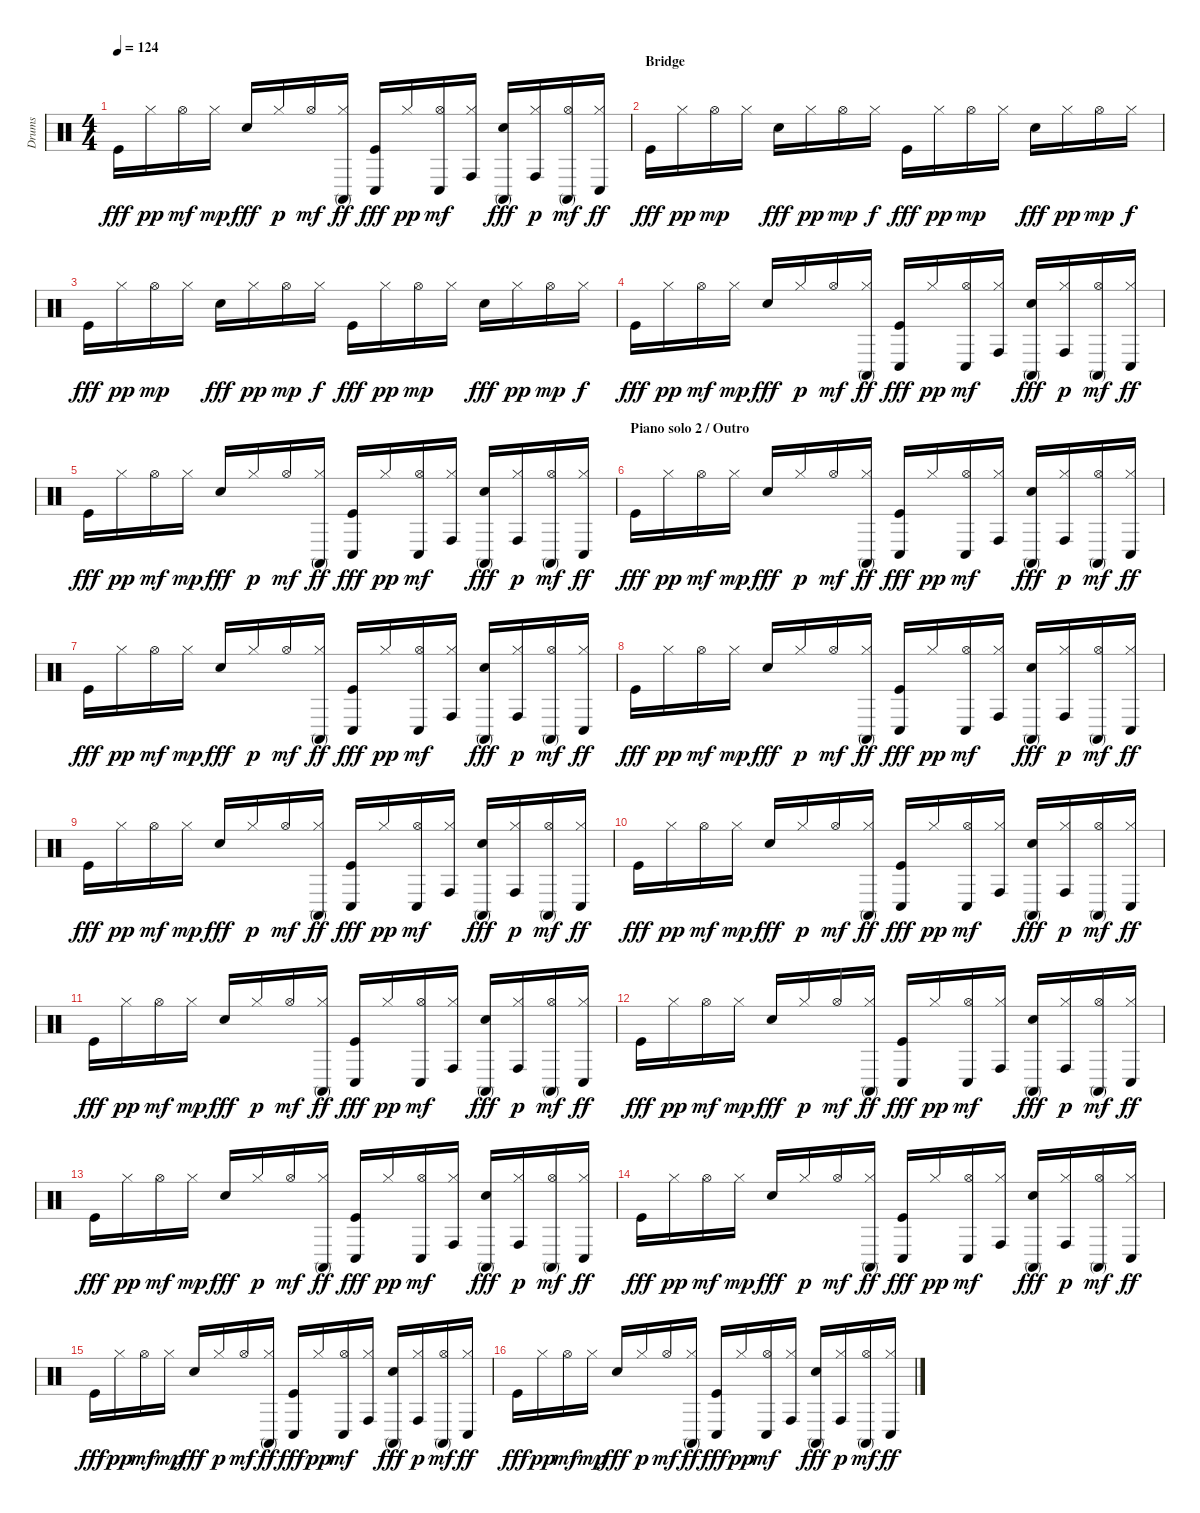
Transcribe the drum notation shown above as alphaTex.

\track ("Drums" "Drums") {instrument percussion}
\staff {score}
\articulation defaults
\ts (4 4)
\tempo 124
\clef neutral
\ks c "Kick (hit)".16{dy fff} "Hi-Hat (closed)".16{dy pp} "Hi-Hat (open)".16{dy mf} "Hi-Hat (closed)".16{dy mp} "Electric Snare (hit)".16{dy fff} "Hi-Hat (closed)".16{dy p} "Hi-Hat (open)".16{dy mf}
("Conga high (mute)" "Hi-Hat (closed)").16{dy ff} ("Kick (hit)" "Conga low (hit)").16{dy fff} "Hi-Hat (closed)".16{dy pp} ("Conga low (hit)" "Hi-Hat (open)").16{dy mf} ("Conga high (hit)" "Hi-Hat (closed)").16 ("Electric Snare (hit)" "Conga high (mute)").16{dy fff} ("Conga high (hit)" "Hi-Hat (closed)").16{dy p} ("Conga high (mute)" "Hi-Hat (open)").16{dy mf} ("Conga low (hit)" "Hi-Hat (closed)").16{dy ff} |
\section ("" "Bridge")
"Kick (hit)".16{dy fff} "Hi-Hat (closed)".16{dy pp} "Hi-Hat (open)".16{dy mp} "Hi-Hat (closed)".16 "Electric Snare (hit)".16{dy fff} "Hi-Hat (closed)".16{dy pp} "Hi-Hat (open)".16{dy mp} "Hi-Hat (closed)".16{dy f} "Kick (hit)".16{dy fff} "Hi-Hat (closed)".16{dy pp} "Hi-Hat (open)".16{dy mp} "Hi-Hat (closed)".16 "Electric Snare (hit)".16{dy fff} "Hi-Hat (closed)".16{dy pp} "Hi-Hat (open)".16{dy mp} "Hi-Hat (closed)".16{dy f} |
"Kick (hit)".16{dy fff} "Hi-Hat (closed)".16{dy pp} "Hi-Hat (open)".16{dy mp} "Hi-Hat (closed)".16 "Electric Snare (hit)".16{dy fff} "Hi-Hat (closed)".16{dy pp} "Hi-Hat (open)".16{dy mp} "Hi-Hat (closed)".16{dy f} "Kick (hit)".16{dy fff} "Hi-Hat (closed)".16{dy pp} "Hi-Hat (open)".16{dy mp} "Hi-Hat (closed)".16 "Electric Snare (hit)".16{dy fff} "Hi-Hat (closed)".16{dy pp} "Hi-Hat (open)".16{dy mp} "Hi-Hat (closed)".16{dy f} |
"Kick (hit)".16{dy fff} "Hi-Hat (closed)".16{dy pp} "Hi-Hat (open)".16{dy mf} "Hi-Hat (closed)".16{dy mp} "Electric Snare (hit)".16{dy fff} "Hi-Hat (closed)".16{dy p} "Hi-Hat (open)".16{dy mf} ("Conga high (mute)" "Hi-Hat (closed)").16{dy ff} ("Kick (hit)" "Conga low (hit)").16{dy fff} "Hi-Hat (closed)".16{dy pp} ("Conga low (hit)" "Hi-Hat (open)").16{dy mf} ("Conga high (hit)" "Hi-Hat (closed)").16 ("Electric Snare (hit)" "Conga high (mute)").16{dy fff} ("Conga high (hit)" "Hi-Hat (closed)").16{dy p} ("Conga high (mute)" "Hi-Hat (open)").16{dy mf} ("Conga low (hit)" "Hi-Hat (closed)").16{dy ff} |
"Kick (hit)".16{dy fff} "Hi-Hat (closed)".16{dy pp} "Hi-Hat (open)".16{dy mf} "Hi-Hat (closed)".16{dy mp} "Electric Snare (hit)".16{dy fff} "Hi-Hat (closed)".16{dy p} "Hi-Hat (open)".16{dy mf} ("Conga high (mute)" "Hi-Hat (closed)").16{dy ff} ("Kick (hit)" "Conga low (hit)").16{dy fff} "Hi-Hat (closed)".16{dy pp} ("Conga low (hit)" "Hi-Hat (open)").16{dy mf} ("Conga high (hit)" "Hi-Hat (closed)").16 ("Electric Snare (hit)" "Conga high (mute)").16{dy fff} ("Conga high (hit)" "Hi-Hat (closed)").16{dy p} ("Conga high (mute)" "Hi-Hat (open)").16{dy mf} ("Conga low (hit)" "Hi-Hat (closed)").16{dy ff} |
\section ("" "Piano solo 2 / Outro")
"Kick (hit)".16{dy fff} "Hi-Hat (closed)".16{dy pp} "Hi-Hat (open)".16{dy mf} "Hi-Hat (closed)".16{dy mp} "Electric Snare (hit)".16{dy fff} "Hi-Hat (closed)".16{dy p} "Hi-Hat (open)".16{dy mf} ("Conga high (mute)" "Hi-Hat (closed)").16{dy ff} ("Kick (hit)" "Conga low (hit)").16{dy fff} "Hi-Hat (closed)".16{dy pp} ("Conga low (hit)" "Hi-Hat (open)").16{dy mf} ("Conga high (hit)" "Hi-Hat (closed)").16 ("Electric Snare (hit)" "Conga high (mute)").16{dy fff} ("Conga high (hit)" "Hi-Hat (closed)").16{dy p} ("Conga high (mute)" "Hi-Hat (open)").16{dy mf} ("Conga low (hit)" "Hi-Hat (closed)").16{dy ff} |
"Kick (hit)".16{dy fff} "Hi-Hat (closed)".16{dy pp} "Hi-Hat (open)".16{dy mf} "Hi-Hat (closed)".16{dy mp} "Electric Snare (hit)".16{dy fff} "Hi-Hat (closed)".16{dy p} "Hi-Hat (open)".16{dy mf} ("Conga high (mute)" "Hi-Hat (closed)").16{dy ff} ("Kick (hit)" "Conga low (hit)").16{dy fff} "Hi-Hat (closed)".16{dy pp} ("Conga low (hit)" "Hi-Hat (open)").16{dy mf} ("Conga high (hit)" "Hi-Hat (closed)").16 ("Electric Snare (hit)" "Conga high (mute)").16{dy fff} ("Conga high (hit)" "Hi-Hat (closed)").16{dy p} ("Conga high (mute)" "Hi-Hat (open)").16{dy mf} ("Conga low (hit)" "Hi-Hat (closed)").16{dy ff} |
"Kick (hit)".16{dy fff} "Hi-Hat (closed)".16{dy pp} "Hi-Hat (open)".16{dy mf} "Hi-Hat (closed)".16{dy mp} "Electric Snare (hit)".16{dy fff} "Hi-Hat (closed)".16{dy p} "Hi-Hat (open)".16{dy mf} ("Conga high (mute)" "Hi-Hat (closed)").16{dy ff} ("Kick (hit)" "Conga low (hit)").16{dy fff} "Hi-Hat (closed)".16{dy pp} ("Conga low (hit)" "Hi-Hat (open)").16{dy mf} ("Conga high (hit)" "Hi-Hat (closed)").16 ("Electric Snare (hit)" "Conga high (mute)").16{dy fff} ("Conga high (hit)" "Hi-Hat (closed)").16{dy p} ("Conga high (mute)" "Hi-Hat (open)").16{dy mf} ("Conga low (hit)" "Hi-Hat (closed)").16{dy ff} |
"Kick (hit)".16{dy fff} "Hi-Hat (closed)".16{dy pp} "Hi-Hat (open)".16{dy mf} "Hi-Hat (closed)".16{dy mp} "Electric Snare (hit)".16{dy fff} "Hi-Hat (closed)".16{dy p} "Hi-Hat (open)".16{dy mf} ("Conga high (mute)" "Hi-Hat (closed)").16{dy ff} ("Kick (hit)" "Conga low (hit)").16{dy fff} "Hi-Hat (closed)".16{dy pp} ("Conga low (hit)" "Hi-Hat (open)").16{dy mf} ("Conga high (hit)" "Hi-Hat (closed)").16 ("Electric Snare (hit)" "Conga high (mute)").16{dy fff} ("Conga high (hit)" "Hi-Hat (closed)").16{dy p} ("Conga high (mute)" "Hi-Hat (open)").16{dy mf} ("Conga low (hit)" "Hi-Hat (closed)").16{dy ff} |
"Kick (hit)".16{dy fff} "Hi-Hat (closed)".16{dy pp} "Hi-Hat (open)".16{dy mf} "Hi-Hat (closed)".16{dy mp} "Electric Snare (hit)".16{dy fff} "Hi-Hat (closed)".16{dy p} "Hi-Hat (open)".16{dy mf} ("Conga high (mute)" "Hi-Hat (closed)").16{dy ff} ("Kick (hit)" "Conga low (hit)").16{dy fff} "Hi-Hat (closed)".16{dy pp} ("Conga low (hit)" "Hi-Hat (open)").16{dy mf} ("Conga high (hit)" "Hi-Hat (closed)").16 ("Electric Snare (hit)" "Conga high (mute)").16{dy fff} ("Conga high (hit)" "Hi-Hat (closed)").16{dy p} ("Conga high (mute)" "Hi-Hat (open)").16{dy mf} ("Conga low (hit)" "Hi-Hat (closed)").16{dy ff} |
"Kick (hit)".16{dy fff} "Hi-Hat (closed)".16{dy pp} "Hi-Hat (open)".16{dy mf} "Hi-Hat (closed)".16{dy mp} "Electric Snare (hit)".16{dy fff} "Hi-Hat (closed)".16{dy p} "Hi-Hat (open)".16{dy mf} ("Conga high (mute)" "Hi-Hat (closed)").16{dy ff} ("Kick (hit)" "Conga low (hit)").16{dy fff} "Hi-Hat (closed)".16{dy pp} ("Conga low (hit)" "Hi-Hat (open)").16{dy mf} ("Conga high (hit)" "Hi-Hat (closed)").16 ("Electric Snare (hit)" "Conga high (mute)").16{dy fff} ("Conga high (hit)" "Hi-Hat (closed)").16{dy p} ("Conga high (mute)" "Hi-Hat (open)").16{dy mf} ("Conga low (hit)" "Hi-Hat (closed)").16{dy ff} |
"Kick (hit)".16{dy fff} "Hi-Hat (closed)".16{dy pp} "Hi-Hat (open)".16{dy mf} "Hi-Hat (closed)".16{dy mp} "Electric Snare (hit)".16{dy fff} "Hi-Hat (closed)".16{dy p} "Hi-Hat (open)".16{dy mf} ("Conga high (mute)" "Hi-Hat (closed)").16{dy ff} ("Kick (hit)" "Conga low (hit)").16{dy fff} "Hi-Hat (closed)".16{dy pp} ("Conga low (hit)" "Hi-Hat (open)").16{dy mf} ("Conga high (hit)" "Hi-Hat (closed)").16 ("Electric Snare (hit)" "Conga high (mute)").16{dy fff} ("Conga high (hit)" "Hi-Hat (closed)").16{dy p} ("Conga high (mute)" "Hi-Hat (open)").16{dy mf} ("Conga low (hit)" "Hi-Hat (closed)").16{dy ff} |
"Kick (hit)".16{dy fff} "Hi-Hat (closed)".16{dy pp} "Hi-Hat (open)".16{dy mf} "Hi-Hat (closed)".16{dy mp} "Electric Snare (hit)".16{dy fff} "Hi-Hat (closed)".16{dy p} "Hi-Hat (open)".16{dy mf} ("Conga high (mute)" "Hi-Hat (closed)").16{dy ff} ("Kick (hit)" "Conga low (hit)").16{dy fff} "Hi-Hat (closed)".16{dy pp} ("Conga low (hit)" "Hi-Hat (open)").16{dy mf} ("Conga high (hit)" "Hi-Hat (closed)").16 ("Electric Snare (hit)" "Conga high (mute)").16{dy fff} ("Conga high (hit)" "Hi-Hat (closed)").16{dy p} ("Conga high (mute)" "Hi-Hat (open)").16{dy mf} ("Conga low (hit)" "Hi-Hat (closed)").16{dy ff} |
"Kick (hit)".16{dy fff} "Hi-Hat (closed)".16{dy pp} "Hi-Hat (open)".16{dy mf} "Hi-Hat (closed)".16{dy mp} "Electric Snare (hit)".16{dy fff} "Hi-Hat (closed)".16{dy p} "Hi-Hat (open)".16{dy mf} ("Conga high (mute)" "Hi-Hat (closed)").16{dy ff} ("Kick (hit)" "Conga low (hit)").16{dy fff} "Hi-Hat (closed)".16{dy pp} ("Conga low (hit)" "Hi-Hat (open)").16{dy mf} ("Conga high (hit)" "Hi-Hat (closed)").16 ("Electric Snare (hit)" "Conga high (mute)").16{dy fff} ("Conga high (hit)" "Hi-Hat (closed)").16{dy p} ("Conga high (mute)" "Hi-Hat (open)").16{dy mf} ("Conga low (hit)" "Hi-Hat (closed)").16{dy ff} |
"Kick (hit)".16{dy fff} "Hi-Hat (closed)".16{dy pp} "Hi-Hat (open)".16{dy mf} "Hi-Hat (closed)".16{dy mp} "Electric Snare (hit)".16{dy fff} "Hi-Hat (closed)".16{dy p} "Hi-Hat (open)".16{dy mf} ("Conga high (mute)" "Hi-Hat (closed)").16{dy ff} ("Kick (hit)" "Conga low (hit)").16{dy fff} "Hi-Hat (closed)".16{dy pp} ("Conga low (hit)" "Hi-Hat (open)").16{dy mf} ("Conga high (hit)" "Hi-Hat (closed)").16 ("Electric Snare (hit)" "Conga high (mute)").16{dy fff} ("Conga high (hit)" "Hi-Hat (closed)").16{dy p} ("Conga high (mute)" "Hi-Hat (open)").16{dy mf} ("Conga low (hit)" "Hi-Hat (closed)").16{dy ff} |
"Kick (hit)".16{dy fff} "Hi-Hat (closed)".16{dy pp} "Hi-Hat (open)".16{dy mf} "Hi-Hat (closed)".16{dy mp} "Electric Snare (hit)".16{dy fff} "Hi-Hat (closed)".16{dy p} "Hi-Hat (open)".16{dy mf} ("Conga high (mute)" "Hi-Hat (closed)").16{dy ff} ("Kick (hit)" "Conga low (hit)").16{dy fff} "Hi-Hat (closed)".16{dy pp} ("Conga low (hit)" "Hi-Hat (open)").16{dy mf} ("Conga high (hit)" "Hi-Hat (closed)").16 ("Electric Snare (hit)" "Conga high (mute)").16{dy fff} ("Conga high (hit)" "Hi-Hat (closed)").16{dy p} ("Conga high (mute)" "Hi-Hat (open)").16{dy mf} ("Conga low (hit)" "Hi-Hat (closed)").16{dy ff}
